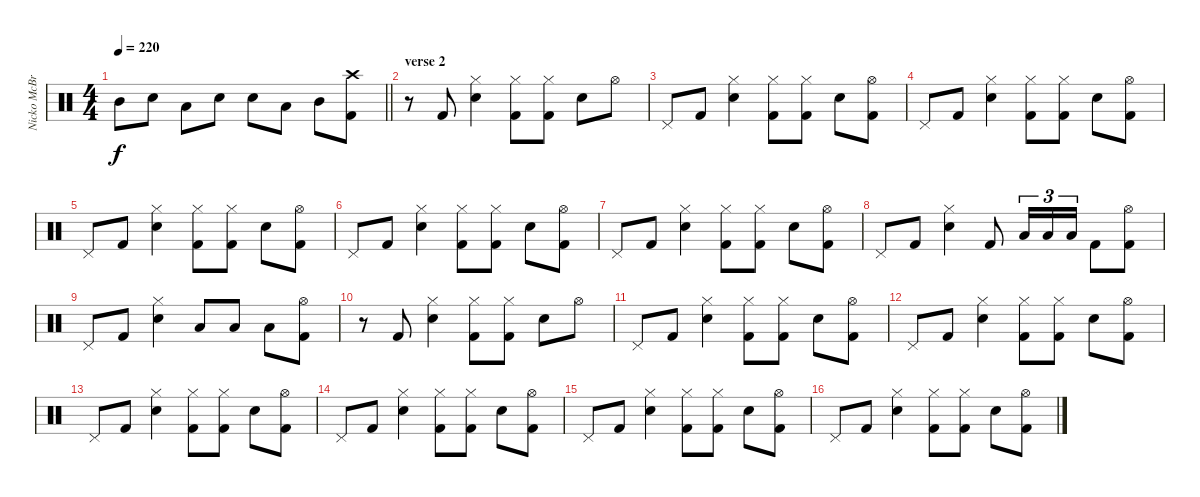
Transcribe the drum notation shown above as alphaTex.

\track ("Nicko McBrain" "Nicko McBr") {instrument percussion}
\staff {score}
\articulation defaults
\ts (4 4)
\tempo 220
\clef neutral
\barLineRight lightlight
\ks c "Mid Tom (hit)".8{dy f} "Snare (hit) 2".8 "Low Tom (hit)".8 "Snare (hit) 2".8 "Snare (hit) 2".8 "Low Floor Tom (hit)".8 "Mid Tom (hit)".8
("Crash high (hit)" "Kick (hit) 2").8 |
\section ("" "verse 2")
r.8 "Kick (hit) 2".8 ("Hi-Hat (closed)" "Snare (hit) 2").4 ("Hi-Hat (closed)" "Kick (hit) 2").8 ("Hi-Hat (closed)" "Kick (hit) 2").8 "Snare (hit) 2".8 "Hi-Hat (open)".8 |
"Pedal Hi-Hat (hit)".8 "Kick (hit) 2".8 ("Hi-Hat (closed)" "Snare (hit) 2").4 ("Hi-Hat (closed)" "Kick (hit) 2").8 ("Hi-Hat (closed)" "Kick (hit) 2").8 "Snare (hit) 2".8 ("Hi-Hat (open)" "Kick (hit) 2").8 |
"Pedal Hi-Hat (hit)".8 "Kick (hit) 2".8 ("Hi-Hat (closed)" "Snare (hit) 2").4 ("Hi-Hat (closed)" "Kick (hit) 2").8 ("Hi-Hat (closed)" "Kick (hit) 2").8 "Snare (hit) 2".8 ("Hi-Hat (open)" "Kick (hit) 2").8 |
"Pedal Hi-Hat (hit)".8 "Kick (hit) 2".8 ("Hi-Hat (closed)" "Snare (hit) 2").4 ("Hi-Hat (closed)" "Kick (hit) 2").8 ("Hi-Hat (closed)" "Kick (hit) 2").8 "Snare (hit) 2".8 ("Hi-Hat (open)" "Kick (hit) 2").8 |
"Pedal Hi-Hat (hit)".8 "Kick (hit) 2".8 ("Hi-Hat (closed)" "Snare (hit) 2").4 ("Hi-Hat (closed)" "Kick (hit) 2").8 ("Hi-Hat (closed)" "Kick (hit) 2").8 "Snare (hit) 2".8 ("Hi-Hat (open)" "Kick (hit) 2").8 |
"Pedal Hi-Hat (hit)".8 "Kick (hit) 2".8 ("Hi-Hat (closed)" "Snare (hit) 2").4 ("Hi-Hat (closed)" "Kick (hit) 2").8 ("Hi-Hat (closed)" "Kick (hit) 2").8 "Snare (hit) 2".8 ("Hi-Hat (open)" "Kick (hit) 2").8 |
"Pedal Hi-Hat (hit)".8 "Kick (hit) 2".8 ("Hi-Hat (closed)" "Snare (hit) 2").4 "Kick (hit) 2".8 "Low Tom (hit)".16{tu (3 2)} "Low Tom (hit)".16{tu (3 2)} "Low Floor Tom (hit)".16{tu (3 2)} "Kick (hit) 2".8 ("Hi-Hat (open)" "Kick (hit) 2").8 |
"Pedal Hi-Hat (hit)".8 "Kick (hit) 2".8 ("Hi-Hat (closed)" "Snare (hit) 2").4 "Low Tom (hit)".8 "Low Tom (hit)".8 "Low Floor Tom (hit)".8 ("Hi-Hat (open)" "Kick (hit) 2").8 |
r.8 "Kick (hit) 2".8 ("Hi-Hat (closed)" "Snare (hit) 2").4 ("Hi-Hat (closed)" "Kick (hit) 2").8 ("Hi-Hat (closed)" "Kick (hit) 2").8 "Snare (hit) 2".8 "Hi-Hat (open)".8 |
"Pedal Hi-Hat (hit)".8 "Kick (hit) 2".8 ("Hi-Hat (closed)" "Snare (hit) 2").4 ("Hi-Hat (closed)" "Kick (hit) 2").8 ("Hi-Hat (closed)" "Kick (hit) 2").8 "Snare (hit) 2".8 ("Hi-Hat (open)" "Kick (hit) 2").8 |
"Pedal Hi-Hat (hit)".8 "Kick (hit) 2".8 ("Hi-Hat (closed)" "Snare (hit) 2").4 ("Hi-Hat (closed)" "Kick (hit) 2").8 ("Hi-Hat (closed)" "Kick (hit) 2").8 "Snare (hit) 2".8 ("Hi-Hat (open)" "Kick (hit) 2").8 |
"Pedal Hi-Hat (hit)".8 "Kick (hit) 2".8 ("Hi-Hat (closed)" "Snare (hit) 2").4 ("Hi-Hat (closed)" "Kick (hit) 2").8 ("Hi-Hat (closed)" "Kick (hit) 2").8 "Snare (hit) 2".8 ("Hi-Hat (open)" "Kick (hit) 2").8 |
"Pedal Hi-Hat (hit)".8 "Kick (hit) 2".8 ("Hi-Hat (closed)" "Snare (hit) 2").4 ("Hi-Hat (closed)" "Kick (hit) 2").8 ("Hi-Hat (closed)" "Kick (hit) 2").8 "Snare (hit) 2".8 ("Hi-Hat (open)" "Kick (hit) 2").8 |
"Pedal Hi-Hat (hit)".8 "Kick (hit) 2".8 ("Hi-Hat (closed)" "Snare (hit) 2").4 ("Hi-Hat (closed)" "Kick (hit) 2").8 ("Hi-Hat (closed)" "Kick (hit) 2").8 "Snare (hit) 2".8 ("Hi-Hat (open)" "Kick (hit) 2").8 |
"Pedal Hi-Hat (hit)".8 "Kick (hit) 2".8 ("Hi-Hat (closed)" "Snare (hit) 2").4 ("Hi-Hat (closed)" "Kick (hit) 2").8 ("Hi-Hat (closed)" "Kick (hit) 2").8 "Snare (hit) 2".8 ("Hi-Hat (open)" "Kick (hit) 2").8
